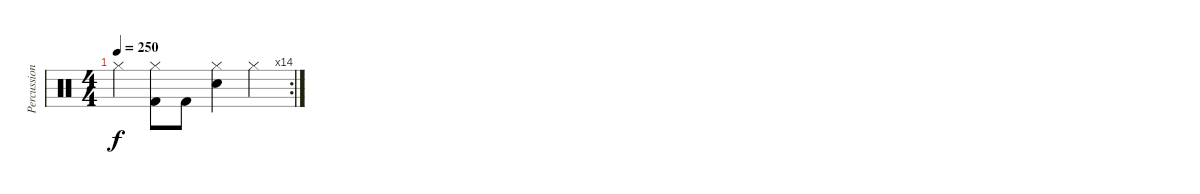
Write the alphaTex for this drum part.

\track ("Percussion" "Percussion") {instrument percussion}
\staff {score}
\articulation defaults
\rc 14
\ts (4 4)
\tempo 250
\clef neutral
\ks c "Hi-Hat (closed)".4{dy f}
("Hi-Hat (closed)" "Kick (hit) 2").8 "Kick (hit) 2".8 ("Hi-Hat (closed)" "Electric Snare (hit)").4 "Hi-Hat (closed)".4
